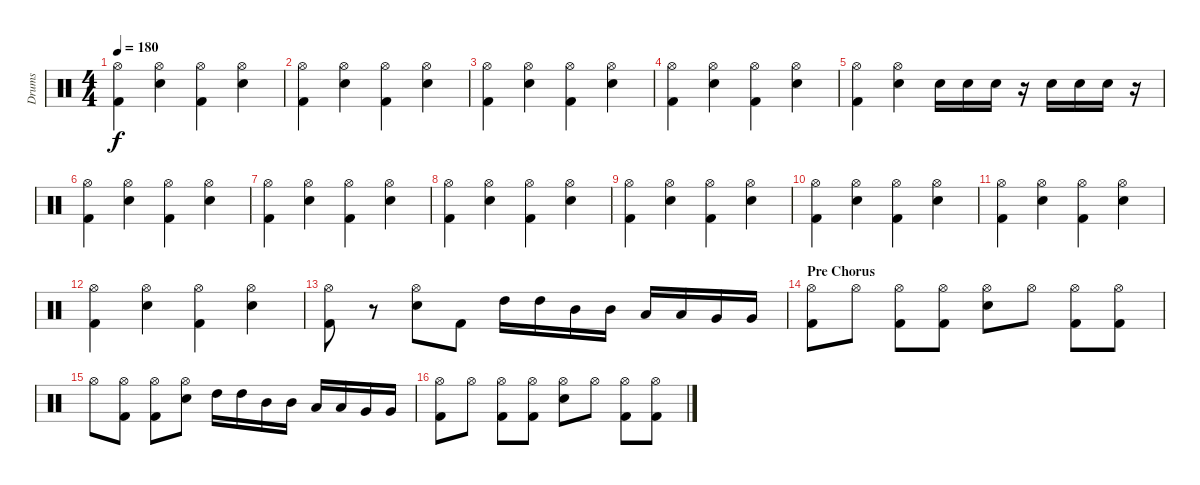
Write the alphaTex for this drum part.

\track ("Drums" "Drums") {instrument percussion}
\staff {score}
\articulation defaults
\ts (4 4)
\tempo 180
\clef neutral
\ks c
("Hi-Hat (open)" "Kick (hit) 2").4{dy f} ("Hi-Hat (open)" "Electric Snare (hit)").4 ("Hi-Hat (open)" "Kick (hit) 2").4 ("Hi-Hat (open)" "Electric Snare (hit)").4 |
("Hi-Hat (open)" "Kick (hit) 2").4 ("Hi-Hat (open)" "Electric Snare (hit)").4 ("Hi-Hat (open)" "Kick (hit) 2").4 ("Hi-Hat (open)" "Electric Snare (hit)").4 |
("Hi-Hat (open)" "Kick (hit) 2").4 ("Hi-Hat (open)" "Electric Snare (hit)").4 ("Hi-Hat (open)" "Kick (hit) 2").4 ("Hi-Hat (open)" "Electric Snare (hit)").4 |
("Hi-Hat (open)" "Kick (hit) 2").4 ("Hi-Hat (open)" "Electric Snare (hit)").4 ("Hi-Hat (open)" "Kick (hit) 2").4 ("Hi-Hat (open)" "Electric Snare (hit)").4 |
("Hi-Hat (open)" "Kick (hit) 2").4 ("Hi-Hat (open)" "Electric Snare (hit)").4 "Electric Snare (hit)".16 "Electric Snare (hit)".16 "Electric Snare (hit)".16 r.16 "Electric Snare (hit)".16 "Electric Snare (hit)".16 "Electric Snare (hit)".16 r.16 |
("Hi-Hat (open)" "Kick (hit) 2").4 ("Hi-Hat (open)" "Electric Snare (hit)").4 ("Hi-Hat (open)" "Kick (hit) 2").4 ("Hi-Hat (open)" "Electric Snare (hit)").4 |
("Hi-Hat (open)" "Kick (hit) 2").4 ("Hi-Hat (open)" "Electric Snare (hit)").4 ("Hi-Hat (open)" "Kick (hit) 2").4 ("Hi-Hat (open)" "Electric Snare (hit)").4 |
("Hi-Hat (open)" "Kick (hit) 2").4 ("Hi-Hat (open)" "Electric Snare (hit)").4 ("Hi-Hat (open)" "Kick (hit) 2").4 ("Hi-Hat (open)" "Electric Snare (hit)").4 |
("Hi-Hat (open)" "Kick (hit) 2").4 ("Hi-Hat (open)" "Electric Snare (hit)").4 ("Hi-Hat (open)" "Kick (hit) 2").4 ("Hi-Hat (open)" "Electric Snare (hit)").4 |
("Hi-Hat (open)" "Kick (hit) 2").4 ("Hi-Hat (open)" "Electric Snare (hit)").4 ("Hi-Hat (open)" "Kick (hit) 2").4 ("Hi-Hat (open)" "Electric Snare (hit)").4 |
("Hi-Hat (open)" "Kick (hit) 2").4 ("Hi-Hat (open)" "Electric Snare (hit)").4 ("Hi-Hat (open)" "Kick (hit) 2").4 ("Hi-Hat (open)" "Electric Snare (hit)").4 |
("Hi-Hat (open)" "Kick (hit) 2").4 ("Hi-Hat (open)" "Electric Snare (hit)").4 ("Hi-Hat (open)" "Kick (hit) 2").4 ("Hi-Hat (open)" "Electric Snare (hit)").4 |
("Hi-Hat (open)" "Kick (hit) 2").8 r.8 ("Hi-Hat (open)" "Electric Snare (hit)").8 "Kick (hit) 2".8 "High Tom (hit)".16 "High Tom (hit)".16 "Mid Tom (hit)".16 "Mid Tom (hit)".16 "Low Tom (hit)".16 "Low Tom (hit)".16 "Very Low Tom (hit)".16 "Very Low Tom (hit)".16 |
\section ("" "Pre Chorus")
("Hi-Hat (open)" "Kick (hit) 2").8 "Hi-Hat (open)".8 ("Hi-Hat (open)" "Kick (hit) 2").8 ("Hi-Hat (open)" "Kick (hit) 2").8 ("Hi-Hat (open)" "Electric Snare (hit)").8 "Hi-Hat (open)".8 ("Hi-Hat (open)" "Kick (hit) 2").8 ("Hi-Hat (open)" "Kick (hit) 2").8 |
"Hi-Hat (open)".8 ("Hi-Hat (open)" "Kick (hit) 2").8 ("Hi-Hat (open)" "Kick (hit) 2").8 ("Hi-Hat (open)" "Electric Snare (hit)").8 "High Tom (hit)".16 "High Tom (hit)".16 "Mid Tom (hit)".16 "Mid Tom (hit)".16 "Low Tom (hit)".16 "Low Tom (hit)".16 "Very Low Tom (hit)".16 "Very Low Tom (hit)".16 |
("Hi-Hat (open)" "Kick (hit) 2").8 "Hi-Hat (open)".8 ("Hi-Hat (open)" "Kick (hit) 2").8 ("Hi-Hat (open)" "Kick (hit) 2").8 ("Hi-Hat (open)" "Electric Snare (hit)").8 "Hi-Hat (open)".8 ("Hi-Hat (open)" "Kick (hit) 2").8 ("Hi-Hat (open)" "Kick (hit) 2").8
